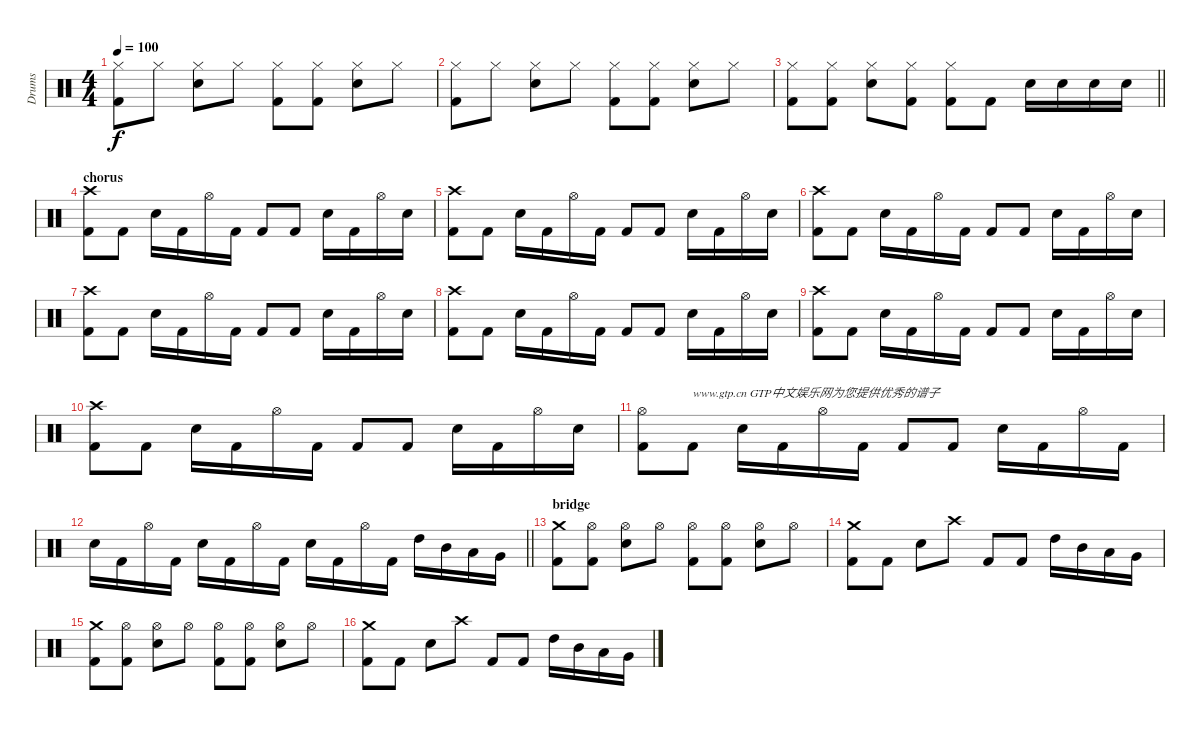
\track ("Drums" "Drums") {instrument percussion}
\staff {score}
\articulation defaults
\ts (4 4)
\tempo 100
\clef neutral
\ks c
("Hi-Hat (closed)" "Kick (hit) 2").8{dy f} "Hi-Hat (closed)".8 ("Hi-Hat (closed)" "Snare (hit) 2").8 "Hi-Hat (closed)".8 ("Hi-Hat (closed)" "Kick (hit) 2").8 ("Hi-Hat (closed)" "Kick (hit) 2").8 ("Hi-Hat (closed)" "Snare (hit) 2").8 "Hi-Hat (closed)".8 |
("Hi-Hat (closed)" "Kick (hit) 2").8 "Hi-Hat (closed)".8 ("Hi-Hat (closed)" "Snare (hit) 2").8 "Hi-Hat (closed)".8 ("Hi-Hat (closed)" "Kick (hit) 2").8 ("Hi-Hat (closed)" "Kick (hit) 2").8 ("Hi-Hat (closed)" "Snare (hit) 2").8 "Hi-Hat (closed)".8 |
\barLineRight lightlight
("Hi-Hat (closed)" "Kick (hit) 2").8 ("Hi-Hat (closed)" "Kick (hit) 2").8 ("Hi-Hat (closed)" "Snare (hit) 2").8 ("Hi-Hat (closed)" "Kick (hit) 2").8 ("Hi-Hat (closed)" "Kick (hit) 2").8 "Kick (hit) 2".8 "Snare (hit) 2".16 "Snare (hit) 2".16 "Snare (hit) 2".16 "Snare (hit) 2".16 |
\section ("" "chorus")
("Crash high (hit)" "Kick (hit) 2").8 "Kick (hit) 2".8 "Snare (hit) 2".16 "Kick (hit) 2".16 "Hi-Hat (open)".16 "Kick (hit) 2".16 "Kick (hit) 2".8 "Kick (hit) 2".8 "Snare (hit) 2".16 "Kick (hit) 2".16 "Hi-Hat (open)".16 "Snare (hit) 2".16 |
("Crash high (hit)" "Kick (hit) 2").8 "Kick (hit) 2".8 "Snare (hit) 2".16 "Kick (hit) 2".16 "Hi-Hat (open)".16 "Kick (hit) 2".16 "Kick (hit) 2".8 "Kick (hit) 2".8 "Snare (hit) 2".16 "Kick (hit) 2".16 "Hi-Hat (open)".16 "Snare (hit) 2".16 |
("Crash high (hit)" "Kick (hit) 2").8 "Kick (hit) 2".8 "Snare (hit) 2".16 "Kick (hit) 2".16 "Hi-Hat (open)".16 "Kick (hit) 2".16 "Kick (hit) 2".8 "Kick (hit) 2".8 "Snare (hit) 2".16 "Kick (hit) 2".16 "Hi-Hat (open)".16 "Snare (hit) 2".16 |
("Crash high (hit)" "Kick (hit) 2").8 "Kick (hit) 2".8 "Snare (hit) 2".16 "Kick (hit) 2".16 "Hi-Hat (open)".16 "Kick (hit) 2".16 "Kick (hit) 2".8 "Kick (hit) 2".8 "Snare (hit) 2".16 "Kick (hit) 2".16 "Hi-Hat (open)".16 "Snare (hit) 2".16 |
("Crash high (hit)" "Kick (hit) 2").8 "Kick (hit) 2".8 "Snare (hit) 2".16 "Kick (hit) 2".16 "Hi-Hat (open)".16 "Kick (hit) 2".16 "Kick (hit) 2".8 "Kick (hit) 2".8 "Snare (hit) 2".16 "Kick (hit) 2".16 "Hi-Hat (open)".16 "Snare (hit) 2".16 |
("Crash high (hit)" "Kick (hit) 2").8 "Kick (hit) 2".8 "Snare (hit) 2".16 "Kick (hit) 2".16 "Hi-Hat (open)".16 "Kick (hit) 2".16 "Kick (hit) 2".8 "Kick (hit) 2".8 "Snare (hit) 2".16 "Kick (hit) 2".16 "Hi-Hat (open)".16 "Snare (hit) 2".16 |
("Crash high (hit)" "Kick (hit) 2").8 "Kick (hit) 2".8 "Snare (hit) 2".16 "Kick (hit) 2".16 "Hi-Hat (open)".16 "Kick (hit) 2".16 "Kick (hit) 2".8 "Kick (hit) 2".8 "Snare (hit) 2".16 "Kick (hit) 2".16 "Hi-Hat (open)".16 "Snare (hit) 2".16 |
("Hi-Hat (open)" "Kick (hit) 2").8 "Kick (hit) 2".8{txt "www.gtp.cn GTP中文娱乐网为您提供优秀的谱子"} "Snare (hit) 2".16 "Kick (hit) 2".16 "Hi-Hat (open)".16 "Kick (hit) 2".16 "Kick (hit) 2".8 "Kick (hit) 2".8 "Snare (hit) 2".16 "Kick (hit) 2".16 "Hi-Hat (open)".16 "Kick (hit) 2".16 |
\barLineRight lightlight "Snare (hit) 2".16 "Kick (hit) 2".16 "Hi-Hat (open)".16 "Kick (hit) 2".16 "Snare (hit) 2".16 "Kick (hit) 2".16 "Hi-Hat (open)".16 "Kick (hit) 2".16 "Snare (hit) 2".16 "Kick (hit) 2".16 "Hi-Hat (open)".16 "Kick (hit) 2".16 "High Tom (hit)".16 "Mid Tom (hit)".16 "Low Tom (hit)".16 "Very Low Tom (hit)".16
|
\section ("" "bridge")
("Crash medium (hit)" "Kick (hit) 2").8 ("Hi-Hat (open)" "Kick (hit) 2").8 ("Hi-Hat (open)" "Snare (hit) 2").8 "Hi-Hat (open)".8 ("Hi-Hat (open)" "Kick (hit) 2").8 ("Hi-Hat (open)" "Kick (hit) 2").8 ("Hi-Hat (open)" "Snare (hit) 2").8 "Hi-Hat (open)".8 |
("Crash medium (hit)" "Kick (hit) 2").8 "Kick (hit) 2".8 "Snare (hit) 2".8 "Crash high (hit)".8 "Kick (hit) 2".8 "Kick (hit) 2".8 "High Tom (hit)".16 "Mid Tom (hit)".16 "Low Tom (hit)".16 "Very Low Tom (hit)".16 |
("Crash medium (hit)" "Kick (hit) 2").8 ("Hi-Hat (open)" "Kick (hit) 2").8 ("Hi-Hat (open)" "Snare (hit) 2").8 "Hi-Hat (open)".8 ("Hi-Hat (open)" "Kick (hit) 2").8 ("Hi-Hat (open)" "Kick (hit) 2").8 ("Hi-Hat (open)" "Snare (hit) 2").8 "Hi-Hat (open)".8 |
("Crash medium (hit)" "Kick (hit) 2").8 "Kick (hit) 2".8 "Snare (hit) 2".8 "Crash high (hit)".8 "Kick (hit) 2".8 "Kick (hit) 2".8 "High Tom (hit)".16 "Mid Tom (hit)".16 "Low Tom (hit)".16 "Very Low Tom (hit)".16
